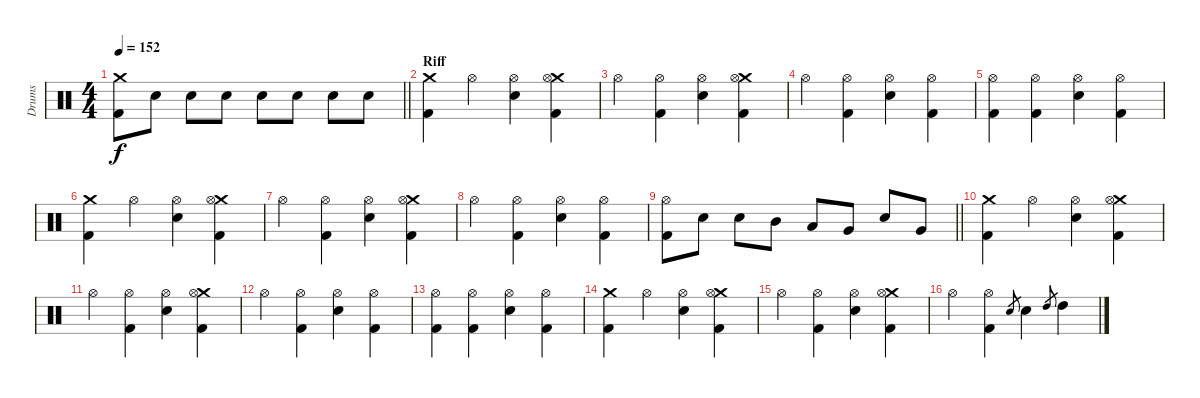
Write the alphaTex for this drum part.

\track ("Drums" "Drums") {instrument percussion}
\staff {score}
\articulation defaults
\ts (4 4)
\tempo 152
\clef neutral
\barLineRight lightlight
\ks c
("Crash medium (hit)" "Kick (hit) 2").8{dy f} "Snare (hit) 2".8 "Snare (hit) 2".8 "Snare (hit) 2".8 "Snare (hit) 2".8 "Snare (hit) 2".8 "Snare (hit) 2".8 "Snare (hit) 2".8 |
\section ("" "Riff")
("Crash medium (hit)" "Kick (hit) 2").4 "Hi-Hat (open)".4 ("Hi-Hat (open)" "Snare (hit) 2").4 ("Crash medium (hit)" "Hi-Hat (open)" "Kick (hit) 2").4 |
"Hi-Hat (open)".4 ("Hi-Hat (open)" "Kick (hit) 2").4 ("Hi-Hat (open)" "Snare (hit) 2").4 ("Crash medium (hit)" "Hi-Hat (open)" "Kick (hit) 2").4 |
"Hi-Hat (open)".4 ("Hi-Hat (open)" "Kick (hit) 2").4 ("Hi-Hat (open)" "Snare (hit) 2").4 ("Hi-Hat (open)" "Kick (hit) 2").4 |
("Hi-Hat (open)" "Kick (hit) 2").4 ("Hi-Hat (open)" "Kick (hit) 2").4 ("Hi-Hat (open)" "Snare (hit) 2").4 ("Hi-Hat (open)" "Kick (hit) 2").4 |
("Crash medium (hit)" "Kick (hit) 2").4 "Hi-Hat (open)".4 ("Hi-Hat (open)" "Snare (hit) 2").4 ("Crash medium (hit)" "Hi-Hat (open)" "Kick (hit) 2").4 |
"Hi-Hat (open)".4 ("Hi-Hat (open)" "Kick (hit) 2").4 ("Hi-Hat (open)" "Snare (hit) 2").4 ("Crash medium (hit)" "Hi-Hat (open)" "Kick (hit) 2").4 |
"Hi-Hat (open)".4 ("Hi-Hat (open)" "Kick (hit) 2").4 ("Hi-Hat (open)" "Snare (hit) 2").4 ("Hi-Hat (open)" "Kick (hit) 2").4 |
\barLineRight lightlight
("Hi-Hat (open)" "Kick (hit) 2").8 "Snare (hit) 2".8 "Snare (hit) 2".8 "Mid Tom (hit)".8 "Low Tom (hit)".8 "Very Low Tom (hit)".8 "Snare (hit) 2".8 "Very Low Tom (hit)".8 |
\section ("" "")
("Crash medium (hit)" "Kick (hit) 2").4 "Hi-Hat (open)".4 ("Hi-Hat (open)" "Snare (hit) 2").4 ("Crash medium (hit)" "Hi-Hat (open)" "Kick (hit) 2").4 |
"Hi-Hat (open)".4 ("Hi-Hat (open)" "Kick (hit) 2").4 ("Hi-Hat (open)" "Snare (hit) 2").4 ("Crash medium (hit)" "Hi-Hat (open)" "Kick (hit) 2").4 |
"Hi-Hat (open)".4 ("Hi-Hat (open)" "Kick (hit) 2").4 ("Hi-Hat (open)" "Snare (hit) 2").4 ("Hi-Hat (open)" "Kick (hit) 2").4 |
("Hi-Hat (open)" "Kick (hit) 2").4 ("Hi-Hat (open)" "Kick (hit) 2").4 ("Hi-Hat (open)" "Snare (hit) 2").4 ("Hi-Hat (open)" "Kick (hit) 2").4 |
("Crash medium (hit)" "Kick (hit) 2").4 "Hi-Hat (open)".4 ("Hi-Hat (open)" "Snare (hit) 2").4 ("Crash medium (hit)" "Hi-Hat (open)" "Kick (hit) 2").4 |
"Hi-Hat (open)".4 ("Hi-Hat (open)" "Kick (hit) 2").4 ("Hi-Hat (open)" "Snare (hit) 2").4 ("Crash medium (hit)" "Hi-Hat (open)" "Kick (hit) 2").4 |
"Hi-Hat (open)".4 ("Hi-Hat (open)" "Kick (hit) 2").4 "Snare (hit) 2".8{gr} "Snare (hit) 2".4 "High Tom (hit)".8{gr} "High Tom (hit)".4
